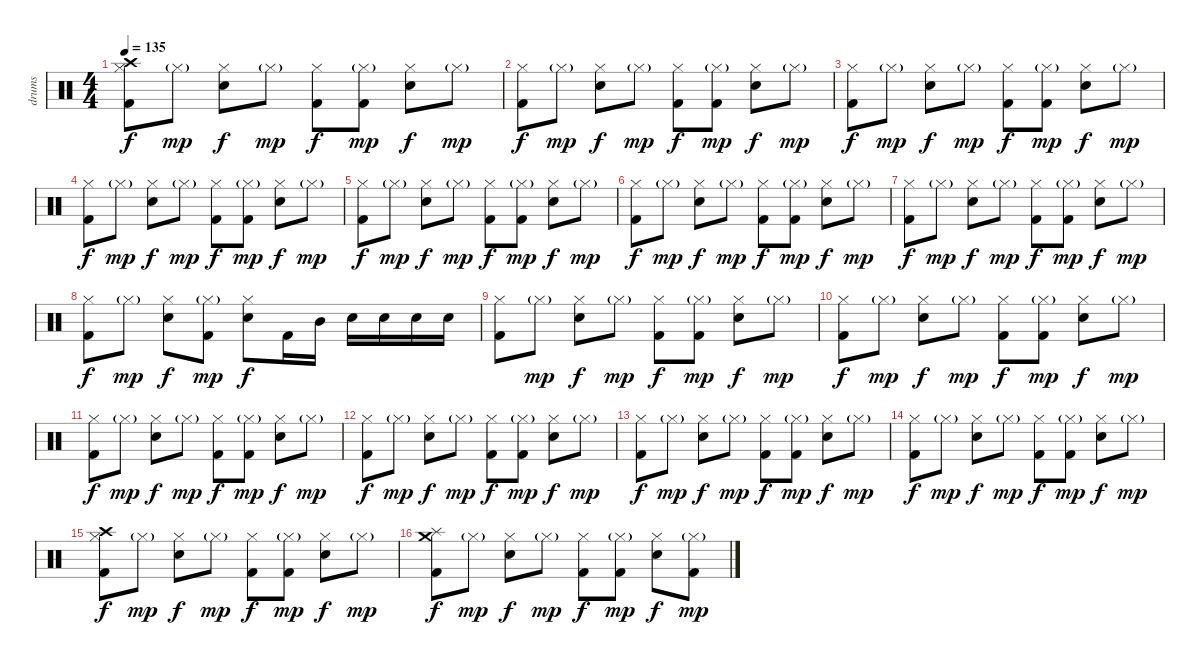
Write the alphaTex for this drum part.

\track ("drums" "drums") {instrument percussion}
\staff {score}
\articulation defaults
\ts (4 4)
\tempo 135
\clef neutral
\ks c
("Crash high (hit)" "Hi-Hat (closed)" "Kick (hit) 2").8{dy f} "Hi-Hat (closed)"{g}.8{dy mp} ("Hi-Hat (closed)" "Snare (hit) 2").8{dy f} "Hi-Hat (closed)"{g}.8{dy mp} ("Hi-Hat (closed)" "Kick (hit) 2").8{dy f} ("Hi-Hat (closed)"{g} "Kick (hit) 2").8{dy mp} ("Hi-Hat (closed)" "Snare (hit) 2").8{dy f} "Hi-Hat (closed)"{g}.8{dy mp} |
("Hi-Hat (closed)" "Kick (hit) 2").8{dy f} "Hi-Hat (closed)"{g}.8{dy mp} ("Hi-Hat (closed)" "Snare (hit) 2").8{dy f} "Hi-Hat (closed)"{g}.8{dy mp} ("Hi-Hat (closed)" "Kick (hit) 2").8{dy f} ("Hi-Hat (closed)"{g} "Kick (hit) 2").8{dy mp} ("Hi-Hat (closed)" "Snare (hit) 2").8{dy f} "Hi-Hat (closed)"{g}.8{dy mp} |
("Hi-Hat (closed)" "Kick (hit) 2").8{dy f} "Hi-Hat (closed)"{g}.8{dy mp} ("Hi-Hat (closed)" "Snare (hit) 2").8{dy f} "Hi-Hat (closed)"{g}.8{dy mp} ("Hi-Hat (closed)" "Kick (hit) 2").8{dy f} ("Hi-Hat (closed)"{g} "Kick (hit) 2").8{dy mp} ("Hi-Hat (closed)" "Snare (hit) 2").8{dy f} "Hi-Hat (closed)"{g}.8{dy mp} |
("Hi-Hat (closed)" "Kick (hit) 2").8{dy f} "Hi-Hat (closed)"{g}.8{dy mp} ("Hi-Hat (closed)" "Snare (hit) 2").8{dy f} "Hi-Hat (closed)"{g}.8{dy mp} ("Hi-Hat (closed)" "Kick (hit) 2").8{dy f} ("Hi-Hat (closed)"{g} "Kick (hit) 2").8{dy mp} ("Hi-Hat (closed)" "Snare (hit) 2").8{dy f} "Hi-Hat (closed)"{g}.8{dy mp} |
("Hi-Hat (closed)" "Kick (hit) 2").8{dy f} "Hi-Hat (closed)"{g}.8{dy mp} ("Hi-Hat (closed)" "Snare (hit) 2").8{dy f} "Hi-Hat (closed)"{g}.8{dy mp} ("Hi-Hat (closed)" "Kick (hit) 2").8{dy f} ("Hi-Hat (closed)"{g} "Kick (hit) 2").8{dy mp} ("Hi-Hat (closed)" "Snare (hit) 2").8{dy f} "Hi-Hat (closed)"{g}.8{dy mp} |
("Hi-Hat (closed)" "Kick (hit) 2").8{dy f} "Hi-Hat (closed)"{g}.8{dy mp} ("Hi-Hat (closed)" "Snare (hit) 2").8{dy f} "Hi-Hat (closed)"{g}.8{dy mp} ("Hi-Hat (closed)" "Kick (hit) 2").8{dy f} ("Hi-Hat (closed)"{g} "Kick (hit) 2").8{dy mp} ("Hi-Hat (closed)" "Snare (hit) 2").8{dy f} "Hi-Hat (closed)"{g}.8{dy mp} |
("Hi-Hat (closed)" "Kick (hit) 2").8{dy f} "Hi-Hat (closed)"{g}.8{dy mp} ("Hi-Hat (closed)" "Snare (hit) 2").8{dy f} "Hi-Hat (closed)"{g}.8{dy mp} ("Hi-Hat (closed)" "Kick (hit) 2").8{dy f} ("Hi-Hat (closed)"{g} "Kick (hit) 2").8{dy mp} ("Hi-Hat (closed)" "Snare (hit) 2").8{dy f} "Hi-Hat (closed)"{g}.8{dy mp} |
("Hi-Hat (closed)" "Kick (hit) 2").8{dy f} "Hi-Hat (closed)"{g}.8{dy mp} ("Hi-Hat (closed)" "Snare (hit) 2").8{dy f} ("Hi-Hat (closed)"{g} "Kick (hit) 2").8{dy mp} ("Hi-Hat (closed)" "Snare (hit) 2").8{dy f} "Kick (hit) 2".16 "Mid Tom (hit)".16 "Snare (hit) 2".16 "Snare (hit) 2".16 "Snare (hit) 2".16 "Snare (hit) 2".16 |
("Hi-Hat (closed)" "Kick (hit) 2").8 "Hi-Hat (closed)"{g}.8{dy mp} ("Hi-Hat (closed)" "Snare (hit) 2").8{dy f} "Hi-Hat (closed)"{g}.8{dy mp} ("Hi-Hat (closed)" "Kick (hit) 2").8{dy f} ("Hi-Hat (closed)"{g} "Kick (hit) 2").8{dy mp} ("Hi-Hat (closed)" "Snare (hit) 2").8{dy f} "Hi-Hat (closed)"{g}.8{dy mp} |
("Hi-Hat (closed)" "Kick (hit) 2").8{dy f} "Hi-Hat (closed)"{g}.8{dy mp} ("Hi-Hat (closed)" "Snare (hit) 2").8{dy f} "Hi-Hat (closed)"{g}.8{dy mp} ("Hi-Hat (closed)" "Kick (hit) 2").8{dy f} ("Hi-Hat (closed)"{g} "Kick (hit) 2").8{dy mp} ("Hi-Hat (closed)" "Snare (hit) 2").8{dy f} "Hi-Hat (closed)"{g}.8{dy mp} |
("Hi-Hat (closed)" "Kick (hit) 2").8{dy f} "Hi-Hat (closed)"{g}.8{dy mp} ("Hi-Hat (closed)" "Snare (hit) 2").8{dy f} "Hi-Hat (closed)"{g}.8{dy mp} ("Hi-Hat (closed)" "Kick (hit) 2").8{dy f} ("Hi-Hat (closed)"{g} "Kick (hit) 2").8{dy mp} ("Hi-Hat (closed)" "Snare (hit) 2").8{dy f} "Hi-Hat (closed)"{g}.8{dy mp} |
("Hi-Hat (closed)" "Kick (hit) 2").8{dy f} "Hi-Hat (closed)"{g}.8{dy mp} ("Hi-Hat (closed)" "Snare (hit) 2").8{dy f} "Hi-Hat (closed)"{g}.8{dy mp} ("Hi-Hat (closed)" "Kick (hit) 2").8{dy f} ("Hi-Hat (closed)"{g} "Kick (hit) 2").8{dy mp} ("Hi-Hat (closed)" "Snare (hit) 2").8{dy f} "Hi-Hat (closed)"{g}.8{dy mp} |
("Hi-Hat (closed)" "Kick (hit) 2").8{dy f} "Hi-Hat (closed)"{g}.8{dy mp} ("Hi-Hat (closed)" "Snare (hit) 2").8{dy f} "Hi-Hat (closed)"{g}.8{dy mp} ("Hi-Hat (closed)" "Kick (hit) 2").8{dy f} ("Hi-Hat (closed)"{g} "Kick (hit) 2").8{dy mp} ("Hi-Hat (closed)" "Snare (hit) 2").8{dy f} "Hi-Hat (closed)"{g}.8{dy mp} |
("Hi-Hat (closed)" "Kick (hit) 2").8{dy f} "Hi-Hat (closed)"{g}.8{dy mp} ("Hi-Hat (closed)" "Snare (hit) 2").8{dy f} "Hi-Hat (closed)"{g}.8{dy mp} ("Hi-Hat (closed)" "Kick (hit) 2").8{dy f} ("Hi-Hat (closed)"{g} "Kick (hit) 2").8{dy mp} ("Hi-Hat (closed)" "Snare (hit) 2").8{dy f} "Hi-Hat (closed)"{g}.8{dy mp} |
("Crash high (hit)" "Hi-Hat (closed)" "Kick (hit) 2").8{dy f} "Hi-Hat (closed)"{g}.8{dy mp} ("Hi-Hat (closed)" "Snare (hit) 2").8{dy f} "Hi-Hat (closed)"{g}.8{dy mp} ("Hi-Hat (closed)" "Kick (hit) 2").8{dy f} ("Hi-Hat (closed)"{g} "Kick (hit) 2").8{dy mp} ("Hi-Hat (closed)" "Snare (hit) 2").8{dy f} "Hi-Hat (closed)"{g}.8{dy mp} |
("Crash medium (hit)" "Splash (hit)" "Kick (hit) 2").8{dy f} "Hi-Hat (closed)"{g}.8{dy mp} ("Hi-Hat (closed)" "Snare (hit) 2").8{dy f} "Hi-Hat (closed)"{g}.8{dy mp} ("Hi-Hat (closed)" "Kick (hit) 2").8{dy f} ("Hi-Hat (closed)"{g} "Kick (hit) 2").8{dy mp} ("Hi-Hat (closed)" "Snare (hit) 2").8{dy f} ("Hi-Hat (closed)"{g} "Kick (hit) 2").8{dy mp}
